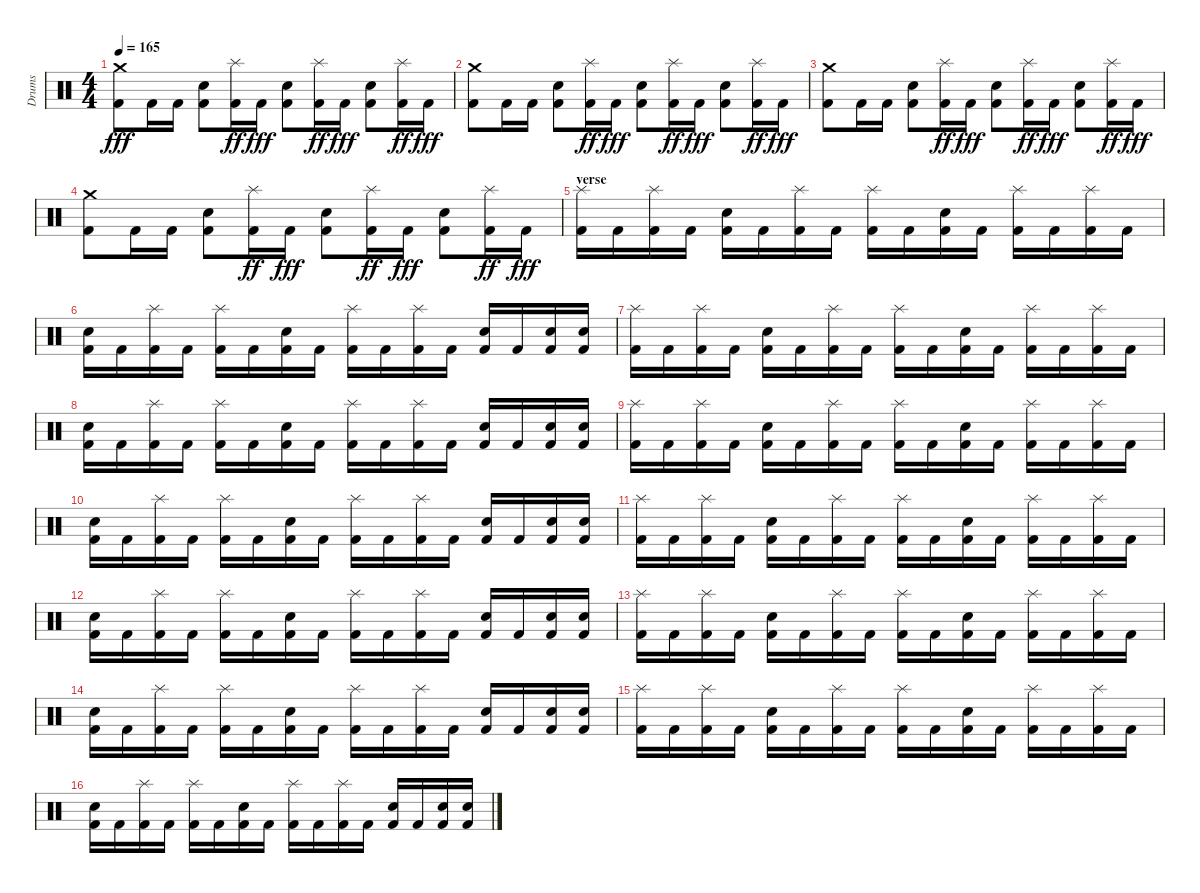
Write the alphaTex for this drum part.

\track ("Drums" "Drums") {instrument percussion}
\staff {score}
\articulation defaults
\ts (4 4)
\tempo 165
\clef neutral
\ks c
("Kick (hit) 2" "Crash medium (hit)").8{dy fff} "Kick (hit) 2".16 "Kick (hit) 2".16 ("Kick (hit) 2" "Electric Snare (hit)").8 ("Kick (hit) 2" "Splash (hit)").16{dy ff} "Kick (hit) 2".16{dy fff} ("Kick (hit) 2" "Electric Snare (hit)").8 ("Kick (hit) 2" "Splash (hit)").16{dy ff} "Kick (hit) 2".16{dy fff} ("Kick (hit) 2" "Electric Snare (hit)").8 ("Kick (hit) 2" "Splash (hit)").16{dy ff} "Kick (hit) 2".16{dy fff} |
("Kick (hit) 2" "Crash medium (hit)").8 "Kick (hit) 2".16 "Kick (hit) 2".16 ("Kick (hit) 2" "Electric Snare (hit)").8 ("Kick (hit) 2" "Splash (hit)").16{dy ff} "Kick (hit) 2".16{dy fff} ("Kick (hit) 2" "Electric Snare (hit)").8 ("Kick (hit) 2" "Splash (hit)").16{dy ff} "Kick (hit) 2".16{dy fff} ("Kick (hit) 2" "Electric Snare (hit)").8 ("Kick (hit) 2" "Splash (hit)").16{dy ff} "Kick (hit) 2".16{dy fff} |
("Kick (hit) 2" "Crash medium (hit)").8 "Kick (hit) 2".16 "Kick (hit) 2".16 ("Kick (hit) 2" "Electric Snare (hit)").8 ("Kick (hit) 2" "Splash (hit)").16{dy ff} "Kick (hit) 2".16{dy fff} ("Kick (hit) 2" "Electric Snare (hit)").8 ("Kick (hit) 2" "Splash (hit)").16{dy ff} "Kick (hit) 2".16{dy fff} ("Kick (hit) 2" "Electric Snare (hit)").8 ("Kick (hit) 2" "Splash (hit)").16{dy ff} "Kick (hit) 2".16{dy fff} |
("Kick (hit) 2" "Crash medium (hit)").8 "Kick (hit) 2".16 "Kick (hit) 2".16 ("Kick (hit) 2" "Electric Snare (hit)").8 ("Kick (hit) 2" "Splash (hit)").16{dy ff} "Kick (hit) 2".16{dy fff} ("Kick (hit) 2" "Electric Snare (hit)").8 ("Kick (hit) 2" "Splash (hit)").16{dy ff} "Kick (hit) 2".16{dy fff} ("Kick (hit) 2" "Electric Snare (hit)").8 ("Kick (hit) 2" "Splash (hit)").16{dy ff} "Kick (hit) 2".16{dy fff} |
\section ("" "verse")
("Splash (hit)" "Kick (hit) 2").16 "Kick (hit) 2".16 ("Splash (hit)" "Kick (hit) 2").16 "Kick (hit) 2".16 ("Snare (hit) 2" "Kick (hit) 2").16 "Kick (hit) 2".16 ("Splash (hit)" "Kick (hit) 2").16 "Kick (hit) 2".16 ("Splash (hit)" "Kick (hit) 2").16 "Kick (hit) 2".16 ("Snare (hit) 2" "Kick (hit) 2").16 "Kick (hit) 2".16 ("Splash (hit)" "Kick (hit) 2").16 "Kick (hit) 2".16 ("Splash (hit)" "Kick (hit) 2").16 "Kick (hit) 2".16 |
("Snare (hit) 2" "Kick (hit) 2").16 "Kick (hit) 2".16 ("Splash (hit)" "Kick (hit) 2").16 "Kick (hit) 2".16 ("Splash (hit)" "Kick (hit) 2").16 "Kick (hit) 2".16 ("Snare (hit) 2" "Kick (hit) 2").16 "Kick (hit) 2".16 ("Splash (hit)" "Kick (hit) 2").16 "Kick (hit) 2".16 ("Splash (hit)" "Kick (hit) 2").16 "Kick (hit) 2".16 ("Snare (hit) 2" "Kick (hit) 2").16 "Kick (hit) 2".16 ("Snare (hit) 2" "Kick (hit) 2").16 ("Snare (hit) 2" "Kick (hit) 2").16 |
("Splash (hit)" "Kick (hit) 2").16 "Kick (hit) 2".16 ("Splash (hit)" "Kick (hit) 2").16 "Kick (hit) 2".16 ("Snare (hit) 2" "Kick (hit) 2").16 "Kick (hit) 2".16 ("Splash (hit)" "Kick (hit) 2").16 "Kick (hit) 2".16 ("Splash (hit)" "Kick (hit) 2").16 "Kick (hit) 2".16 ("Snare (hit) 2" "Kick (hit) 2").16 "Kick (hit) 2".16 ("Splash (hit)" "Kick (hit) 2").16 "Kick (hit) 2".16 ("Splash (hit)" "Kick (hit) 2").16 "Kick (hit) 2".16 |
("Snare (hit) 2" "Kick (hit) 2").16 "Kick (hit) 2".16 ("Splash (hit)" "Kick (hit) 2").16 "Kick (hit) 2".16 ("Splash (hit)" "Kick (hit) 2").16 "Kick (hit) 2".16 ("Snare (hit) 2" "Kick (hit) 2").16 "Kick (hit) 2".16 ("Splash (hit)" "Kick (hit) 2").16 "Kick (hit) 2".16 ("Splash (hit)" "Kick (hit) 2").16 "Kick (hit) 2".16 ("Snare (hit) 2" "Kick (hit) 2").16 "Kick (hit) 2".16 ("Snare (hit) 2" "Kick (hit) 2").16 ("Snare (hit) 2" "Kick (hit) 2").16 |
("Splash (hit)" "Kick (hit) 2").16 "Kick (hit) 2".16 ("Splash (hit)" "Kick (hit) 2").16 "Kick (hit) 2".16 ("Snare (hit) 2" "Kick (hit) 2").16 "Kick (hit) 2".16 ("Splash (hit)" "Kick (hit) 2").16 "Kick (hit) 2".16 ("Splash (hit)" "Kick (hit) 2").16 "Kick (hit) 2".16 ("Snare (hit) 2" "Kick (hit) 2").16 "Kick (hit) 2".16 ("Splash (hit)" "Kick (hit) 2").16 "Kick (hit) 2".16 ("Splash (hit)" "Kick (hit) 2").16 "Kick (hit) 2".16 |
("Snare (hit) 2" "Kick (hit) 2").16 "Kick (hit) 2".16 ("Splash (hit)" "Kick (hit) 2").16 "Kick (hit) 2".16 ("Splash (hit)" "Kick (hit) 2").16 "Kick (hit) 2".16 ("Snare (hit) 2" "Kick (hit) 2").16 "Kick (hit) 2".16 ("Splash (hit)" "Kick (hit) 2").16 "Kick (hit) 2".16 ("Splash (hit)" "Kick (hit) 2").16 "Kick (hit) 2".16 ("Snare (hit) 2" "Kick (hit) 2").16 "Kick (hit) 2".16 ("Snare (hit) 2" "Kick (hit) 2").16 ("Snare (hit) 2" "Kick (hit) 2").16 |
("Splash (hit)" "Kick (hit) 2").16 "Kick (hit) 2".16 ("Splash (hit)" "Kick (hit) 2").16 "Kick (hit) 2".16 ("Snare (hit) 2" "Kick (hit) 2").16 "Kick (hit) 2".16 ("Splash (hit)" "Kick (hit) 2").16 "Kick (hit) 2".16 ("Splash (hit)" "Kick (hit) 2").16 "Kick (hit) 2".16 ("Snare (hit) 2" "Kick (hit) 2").16 "Kick (hit) 2".16 ("Splash (hit)" "Kick (hit) 2").16 "Kick (hit) 2".16 ("Splash (hit)" "Kick (hit) 2").16 "Kick (hit) 2".16 |
("Snare (hit) 2" "Kick (hit) 2").16 "Kick (hit) 2".16 ("Splash (hit)" "Kick (hit) 2").16 "Kick (hit) 2".16 ("Splash (hit)" "Kick (hit) 2").16 "Kick (hit) 2".16 ("Snare (hit) 2" "Kick (hit) 2").16 "Kick (hit) 2".16 ("Splash (hit)" "Kick (hit) 2").16 "Kick (hit) 2".16 ("Splash (hit)" "Kick (hit) 2").16 "Kick (hit) 2".16 ("Snare (hit) 2" "Kick (hit) 2").16 "Kick (hit) 2".16 ("Snare (hit) 2" "Kick (hit) 2").16 ("Snare (hit) 2" "Kick (hit) 2").16 |
("Splash (hit)" "Kick (hit) 2").16 "Kick (hit) 2".16 ("Splash (hit)" "Kick (hit) 2").16 "Kick (hit) 2".16 ("Snare (hit) 2" "Kick (hit) 2").16 "Kick (hit) 2".16 ("Splash (hit)" "Kick (hit) 2").16 "Kick (hit) 2".16 ("Splash (hit)" "Kick (hit) 2").16 "Kick (hit) 2".16 ("Snare (hit) 2" "Kick (hit) 2").16 "Kick (hit) 2".16 ("Splash (hit)" "Kick (hit) 2").16 "Kick (hit) 2".16 ("Splash (hit)" "Kick (hit) 2").16 "Kick (hit) 2".16 |
("Snare (hit) 2" "Kick (hit) 2").16 "Kick (hit) 2".16 ("Splash (hit)" "Kick (hit) 2").16 "Kick (hit) 2".16 ("Splash (hit)" "Kick (hit) 2").16 "Kick (hit) 2".16 ("Snare (hit) 2" "Kick (hit) 2").16 "Kick (hit) 2".16 ("Splash (hit)" "Kick (hit) 2").16 "Kick (hit) 2".16 ("Splash (hit)" "Kick (hit) 2").16 "Kick (hit) 2".16 ("Snare (hit) 2" "Kick (hit) 2").16 "Kick (hit) 2".16 ("Snare (hit) 2" "Kick (hit) 2").16 ("Snare (hit) 2" "Kick (hit) 2").16 |
("Splash (hit)" "Kick (hit) 2").16 "Kick (hit) 2".16 ("Splash (hit)" "Kick (hit) 2").16 "Kick (hit) 2".16 ("Snare (hit) 2" "Kick (hit) 2").16 "Kick (hit) 2".16 ("Splash (hit)" "Kick (hit) 2").16 "Kick (hit) 2".16 ("Splash (hit)" "Kick (hit) 2").16 "Kick (hit) 2".16 ("Snare (hit) 2" "Kick (hit) 2").16 "Kick (hit) 2".16 ("Splash (hit)" "Kick (hit) 2").16 "Kick (hit) 2".16 ("Splash (hit)" "Kick (hit) 2").16 "Kick (hit) 2".16 |
("Snare (hit) 2" "Kick (hit) 2").16 "Kick (hit) 2".16 ("Splash (hit)" "Kick (hit) 2").16 "Kick (hit) 2".16 ("Splash (hit)" "Kick (hit) 2").16 "Kick (hit) 2".16 ("Snare (hit) 2" "Kick (hit) 2").16 "Kick (hit) 2".16 ("Splash (hit)" "Kick (hit) 2").16 "Kick (hit) 2".16 ("Splash (hit)" "Kick (hit) 2").16 "Kick (hit) 2".16 ("Snare (hit) 2" "Kick (hit) 2").16 "Kick (hit) 2".16 ("Snare (hit) 2" "Kick (hit) 2").16 ("Snare (hit) 2" "Kick (hit) 2").16
